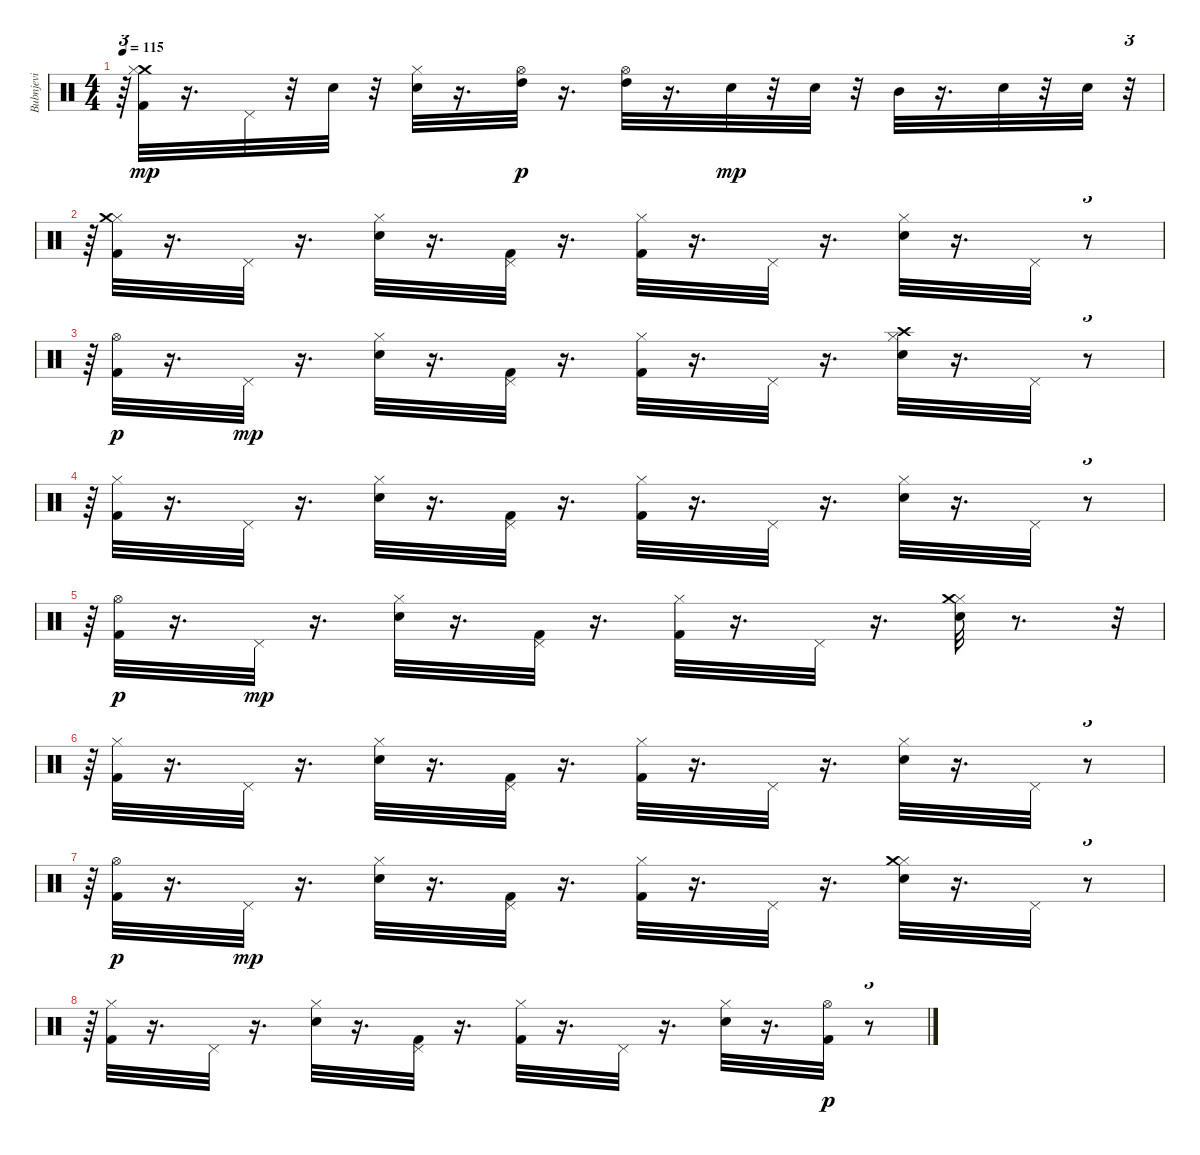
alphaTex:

\track ("Bubnjevi" "Bubnjevi") {instrument percussion}
\staff {score}
\articulation defaults
\ts (4 4)
\tempo 115
\clef neutral
\ks c
r.64{tu (3 2) dy p} ("Crash medium (hit)" "Hi-Hat (closed)" "Kick (hit) 2").32{dy mp} r.16{d} "Pedal Hi-Hat (hit)".32 r.32 "Electric Snare (hit)".32 r.32 ("Hi-Hat (closed)" "Electric Snare (hit)").32 r.16{d} ("High Tom (hit)" "Hi-Hat (open)").32{dy p} r.16{d} ("High Tom (hit)" "Hi-Hat (open)").32 r.16{d} "Electric Snare (hit)".32{dy mp} r.32 "Electric Snare (hit)".32 r.32 "Mid Tom (hit)".32 r.16{d} "Electric Snare (hit)".32 r.32 "Electric Snare (hit)".32 r.32{tu (3 2)} |
r.64{tu (3 2)} ("Hi-Hat (closed)" "Kick (hit) 2" "Crash medium (hit)").32 r.16{d} "Pedal Hi-Hat (hit)".32 r.16{d} ("Hi-Hat (closed)" "Electric Snare (hit)").32 r.16{d} ("Pedal Hi-Hat (hit)" "Kick (hit) 2").32 r.16{d} ("Hi-Hat (closed)" "Kick (hit) 2").32 r.16{d} "Pedal Hi-Hat (hit)".32 r.16{d} ("Hi-Hat (closed)" "Electric Snare (hit)").32 r.16{d} "Pedal Hi-Hat (hit)".32 r.8{tu (3 2)} |
r.64{tu (3 2)} ("Kick (hit) 2" "Hi-Hat (open)").32{dy p} r.16{d} "Pedal Hi-Hat (hit)".32{dy mp} r.16{d} ("Electric Snare (hit)" "Hi-Hat (closed)").32 r.16{d} ("Kick (hit) 2" "Pedal Hi-Hat (hit)").32 r.16{d} ("Kick (hit) 2" "Hi-Hat (closed)").32 r.16{d} "Pedal Hi-Hat (hit)".32 r.16{d} ("Electric Snare (hit)" "Hi-Hat (closed)" "Crash high (hit)").32 r.16{d} "Pedal Hi-Hat (hit)".32 r.8{tu (3 2)} |
r.64{tu (3 2)} ("Kick (hit) 2" "Hi-Hat (closed)").32 r.16{d} "Pedal Hi-Hat (hit)".32 r.16{d} ("Electric Snare (hit)" "Hi-Hat (closed)").32 r.16{d} ("Kick (hit) 2" "Pedal Hi-Hat (hit)").32 r.16{d} ("Kick (hit) 2" "Hi-Hat (closed)").32 r.16{d} "Pedal Hi-Hat (hit)".32 r.16{d} ("Electric Snare (hit)" "Hi-Hat (closed)").32 r.16{d} "Pedal Hi-Hat (hit)".32 r.8{tu (3 2)} |
r.64{tu (3 2)} ("Kick (hit) 2" "Hi-Hat (open)").32{dy p} r.16{d} "Pedal Hi-Hat (hit)".32{dy mp} r.16{d} ("Hi-Hat (closed)" "Electric Snare (hit)").32 r.16{d} ("Pedal Hi-Hat (hit)" "Kick (hit) 2").32 r.16{d} ("Hi-Hat (closed)" "Kick (hit) 2").32 r.16{d} "Pedal Hi-Hat (hit)".32 r.16{d} ("Hi-Hat (closed)" "Electric Snare (hit)" "Crash medium (hit)").32 r.8{d} r.32{tu (3 2)} |
r.64{tu (3 2)} ("Kick (hit) 2" "Hi-Hat (closed)").32 r.16{d} "Pedal Hi-Hat (hit)".32 r.16{d} ("Electric Snare (hit)" "Hi-Hat (closed)").32 r.16{d} ("Kick (hit) 2" "Pedal Hi-Hat (hit)").32 r.16{d} ("Kick (hit) 2" "Hi-Hat (closed)").32 r.16{d} "Pedal Hi-Hat (hit)".32 r.16{d} ("Electric Snare (hit)" "Hi-Hat (closed)").32 r.16{d} "Pedal Hi-Hat (hit)".32 r.8{tu (3 2)} |
r.64{tu (3 2)} ("Kick (hit) 2" "Hi-Hat (open)").32{dy p} r.16{d} "Pedal Hi-Hat (hit)".32{dy mp} r.16{d} ("Hi-Hat (closed)" "Electric Snare (hit)").32 r.16{d} ("Pedal Hi-Hat (hit)" "Kick (hit) 2").32 r.16{d} ("Hi-Hat (closed)" "Kick (hit) 2").32 r.16{d} "Pedal Hi-Hat (hit)".32 r.16{d} ("Hi-Hat (closed)" "Electric Snare (hit)" "Crash medium (hit)").32 r.16{d} "Pedal Hi-Hat (hit)".32 r.8{tu (3 2)} |
r.64{tu (3 2)} ("Hi-Hat (closed)" "Kick (hit) 2").32 r.16{d} "Pedal Hi-Hat (hit)".32 r.16{d} ("Hi-Hat (closed)" "Electric Snare (hit)").32 r.16{d} ("Pedal Hi-Hat (hit)" "Kick (hit) 2").32 r.16{d} ("Hi-Hat (closed)" "Kick (hit) 2").32 r.16{d} "Pedal Hi-Hat (hit)".32 r.16{d} ("Hi-Hat (closed)" "Electric Snare (hit)").32 r.16{d} ("Kick (hit) 2" "Hi-Hat (open)").32{dy p} r.8{tu (3 2)}
